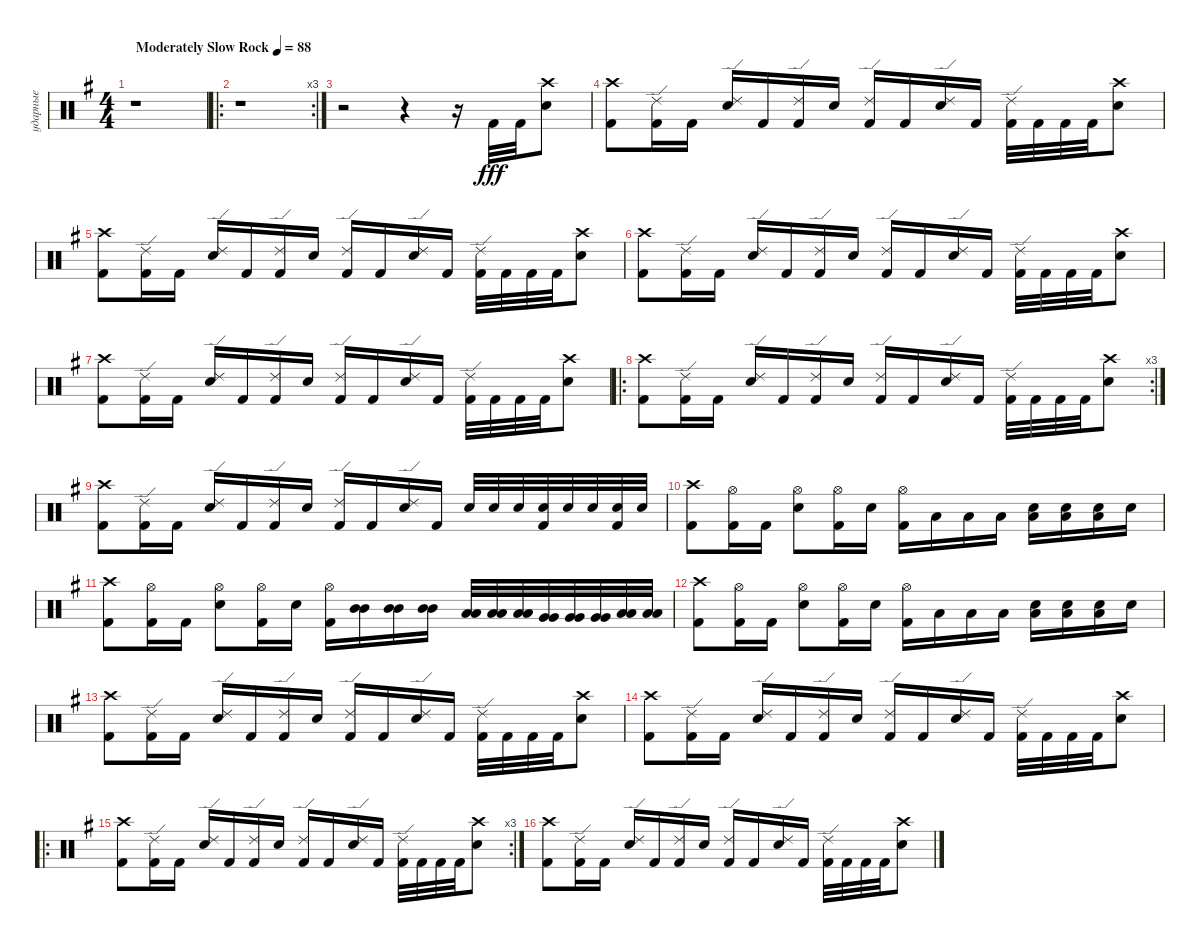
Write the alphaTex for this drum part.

\track ("ударные" "ударные") {instrument percussion}
\staff {score}
\articulation defaults
\ts (4 4)
\tempo (88 "Moderately Slow Rock")
\clef neutral
\ks eminor
r.1{dy fff} |
\ro
\rc 3
r.1 |
r.2 r.4 r.16 "Kick (hit) 2".32 "Kick (hit) 2".32 ("Crash high (hit)" "Snare (hit) 2").8 |
("Crash high (hit)" "Kick (hit) 2").8 ("Ride (edge) 2" "Kick (hit) 2").16 "Kick (hit) 2".16 ("Ride (edge) 2" "Snare (hit) 2").16 "Kick (hit) 2".16 ("Ride (edge) 2" "Kick (hit) 2").16 "Snare (hit) 2".16 ("Ride (edge) 2" "Kick (hit) 2").16 "Kick (hit) 2".16 ("Ride (edge) 2" "Snare (hit) 2").16 "Kick (hit) 2".16 ("Ride (edge) 2" "Kick (hit) 2").32 "Kick (hit) 2".32 "Kick (hit) 2".32 "Kick (hit) 2".32 ("Crash high (hit)" "Snare (hit) 2").8 |
("Crash high (hit)" "Kick (hit) 2").8 ("Ride (edge) 2" "Kick (hit) 2").16 "Kick (hit) 2".16 ("Ride (edge) 2" "Snare (hit) 2").16 "Kick (hit) 2".16 ("Ride (edge) 2" "Kick (hit) 2").16 "Snare (hit) 2".16 ("Ride (edge) 2" "Kick (hit) 2").16 "Kick (hit) 2".16 ("Ride (edge) 2" "Snare (hit) 2").16 "Kick (hit) 2".16 ("Ride (edge) 2" "Kick (hit) 2").32 "Kick (hit) 2".32 "Kick (hit) 2".32 "Kick (hit) 2".32 ("Crash high (hit)" "Snare (hit) 2").8 |
("Crash high (hit)" "Kick (hit) 2").8 ("Ride (edge) 2" "Kick (hit) 2").16 "Kick (hit) 2".16 ("Ride (edge) 2" "Snare (hit) 2").16 "Kick (hit) 2".16 ("Ride (edge) 2" "Kick (hit) 2").16 "Snare (hit) 2".16 ("Ride (edge) 2" "Kick (hit) 2").16 "Kick (hit) 2".16 ("Ride (edge) 2" "Snare (hit) 2").16 "Kick (hit) 2".16 ("Ride (edge) 2" "Kick (hit) 2").32 "Kick (hit) 2".32 "Kick (hit) 2".32 "Kick (hit) 2".32 ("Crash high (hit)" "Snare (hit) 2").8 |
("Crash high (hit)" "Kick (hit) 2").8 ("Ride (edge) 2" "Kick (hit) 2").16 "Kick (hit) 2".16 ("Ride (edge) 2" "Snare (hit) 2").16 "Kick (hit) 2".16 ("Ride (edge) 2" "Kick (hit) 2").16 "Snare (hit) 2".16 ("Ride (edge) 2" "Kick (hit) 2").16 "Kick (hit) 2".16 ("Ride (edge) 2" "Snare (hit) 2").16 "Kick (hit) 2".16 ("Ride (edge) 2" "Kick (hit) 2").32 "Kick (hit) 2".32 "Kick (hit) 2".32 "Kick (hit) 2".32 ("Crash high (hit)" "Snare (hit) 2").8 |
\ro
\rc 3
("Crash high (hit)" "Kick (hit) 2").8 ("Ride (edge) 2" "Kick (hit) 2").16 "Kick (hit) 2".16 ("Ride (edge) 2" "Snare (hit) 2").16 "Kick (hit) 2".16 ("Ride (edge) 2" "Kick (hit) 2").16 "Snare (hit) 2".16 ("Ride (edge) 2" "Kick (hit) 2").16 "Kick (hit) 2".16 ("Ride (edge) 2" "Snare (hit) 2").16 "Kick (hit) 2".16 ("Ride (edge) 2" "Kick (hit) 2").32 "Kick (hit) 2".32 "Kick (hit) 2".32 "Kick (hit) 2".32 ("Crash high (hit)" "Snare (hit) 2").8 |
("Crash high (hit)" "Kick (hit) 2").8 ("Ride (edge) 2" "Kick (hit) 2").16 "Kick (hit) 2".16 ("Ride (edge) 2" "Snare (hit) 2").16 "Kick (hit) 2".16 ("Ride (edge) 2" "Kick (hit) 2").16 "Snare (hit) 2".16 ("Ride (edge) 2" "Kick (hit) 2").16 "Kick (hit) 2".16 ("Ride (edge) 2" "Snare (hit) 2").16 "Kick (hit) 2".16 "Snare (hit) 2".32 "Snare (hit) 2".32 "Snare (hit) 2".32 ("Snare (hit) 2" "Kick (hit) 2").32 "Snare (hit) 2".32 "Snare (hit) 2".32 ("Snare (hit) 2" "Kick (hit) 2").32 "Snare (hit) 2".32 |
("Crash high (hit)" "Kick (hit) 2").8 ("Hi-Hat (open)" "Kick (hit) 2").16 "Kick (hit) 2".16 ("Hi-Hat (open)" "Snare (hit) 2").8 ("Hi-Hat (open)" "Kick (hit) 2").16 "Snare (hit) 2".16 ("Hi-Hat (open)" "Kick (hit) 2").16 "Low Tom (hit)".16 "Low Tom (hit)".16 "Low Tom (hit)".16 ("Snare (hit) 2" "Low Tom (hit)").16 ("Snare (hit) 2" "Low Tom (hit)").16 ("Snare (hit) 2" "Low Tom (hit)").16 "Snare (hit) 2".16 |
("Crash high (hit)" "Kick (hit) 2").8 ("Hi-Hat (open)" "Kick (hit) 2").16 "Kick (hit) 2".16 ("Hi-Hat (open)" "Snare (hit) 2").8 ("Hi-Hat (open)" "Kick (hit) 2").16 "Snare (hit) 2".16 ("Hi-Hat (open)" "Kick (hit) 2").16 ("Mid Tom (hit)" "Mid Tom (hit)").16 ("Mid Tom (hit)" "Mid Tom (hit)").16 ("Mid Tom (hit)" "Mid Tom (hit)").16 ("Low Tom (hit)" "Low Tom (hit)").32 ("Low Tom (hit)" "Low Tom (hit)").32 ("Low Tom (hit)" "Low Tom (hit)").32 ("Very Low Tom (hit)" "Very Low Tom (hit)").32 ("Very Low Tom (hit)" "Very Low Tom (hit)").32 ("Very Low Tom (hit)" "Very Low Tom (hit)").32 ("Low Floor Tom (hit)" "Low Floor Tom (hit)").32 ("Low Floor Tom (hit)" "Low Floor Tom (hit)").32 |
("Crash high (hit)" "Kick (hit) 2").8 ("Hi-Hat (open)" "Kick (hit) 2").16 "Kick (hit) 2".16 ("Hi-Hat (open)" "Snare (hit) 2").8 ("Hi-Hat (open)" "Kick (hit) 2").16 "Snare (hit) 2".16 ("Hi-Hat (open)" "Kick (hit) 2").16 "Low Tom (hit)".16 "Low Tom (hit)".16 "Low Tom (hit)".16 ("Snare (hit) 2" "Low Tom (hit)").16 ("Snare (hit) 2" "Low Tom (hit)").16 ("Snare (hit) 2" "Low Tom (hit)").16 "Snare (hit) 2".16 |
("Crash high (hit)" "Kick (hit) 2").8 ("Ride (edge) 2" "Kick (hit) 2").16 "Kick (hit) 2".16 ("Ride (edge) 2" "Snare (hit) 2").16 "Kick (hit) 2".16 ("Ride (edge) 2" "Kick (hit) 2").16 "Snare (hit) 2".16 ("Ride (edge) 2" "Kick (hit) 2").16 "Kick (hit) 2".16 ("Ride (edge) 2" "Snare (hit) 2").16 "Kick (hit) 2".16 ("Ride (edge) 2" "Kick (hit) 2").32 "Kick (hit) 2".32 "Kick (hit) 2".32 "Kick (hit) 2".32 ("Crash high (hit)" "Snare (hit) 2").8 |
("Crash high (hit)" "Kick (hit) 2").8 ("Ride (edge) 2" "Kick (hit) 2").16 "Kick (hit) 2".16 ("Ride (edge) 2" "Snare (hit) 2").16 "Kick (hit) 2".16 ("Ride (edge) 2" "Kick (hit) 2").16 "Snare (hit) 2".16 ("Ride (edge) 2" "Kick (hit) 2").16 "Kick (hit) 2".16 ("Ride (edge) 2" "Snare (hit) 2").16 "Kick (hit) 2".16 ("Ride (edge) 2" "Kick (hit) 2").32 "Kick (hit) 2".32 "Kick (hit) 2".32 "Kick (hit) 2".32 ("Crash high (hit)" "Snare (hit) 2").8 |
\ro
\rc 3
("Crash high (hit)" "Kick (hit) 2").8 ("Ride (edge) 2" "Kick (hit) 2").16 "Kick (hit) 2".16 ("Ride (edge) 2" "Snare (hit) 2").16 "Kick (hit) 2".16 ("Ride (edge) 2" "Kick (hit) 2").16 "Snare (hit) 2".16 ("Ride (edge) 2" "Kick (hit) 2").16 "Kick (hit) 2".16 ("Ride (edge) 2" "Snare (hit) 2").16 "Kick (hit) 2".16 ("Ride (edge) 2" "Kick (hit) 2").32 "Kick (hit) 2".32 "Kick (hit) 2".32 "Kick (hit) 2".32 ("Crash high (hit)" "Snare (hit) 2").8 |
("Crash high (hit)" "Kick (hit) 2").8 ("Ride (edge) 2" "Kick (hit) 2").16 "Kick (hit) 2".16 ("Ride (edge) 2" "Snare (hit) 2").16 "Kick (hit) 2".16 ("Ride (edge) 2" "Kick (hit) 2").16 "Snare (hit) 2".16 ("Ride (edge) 2" "Kick (hit) 2").16 "Kick (hit) 2".16 ("Ride (edge) 2" "Snare (hit) 2").16 "Kick (hit) 2".16 ("Ride (edge) 2" "Kick (hit) 2").32 "Kick (hit) 2".32 "Kick (hit) 2".32 "Kick (hit) 2".32 ("Crash high (hit)" "Snare (hit) 2").8
